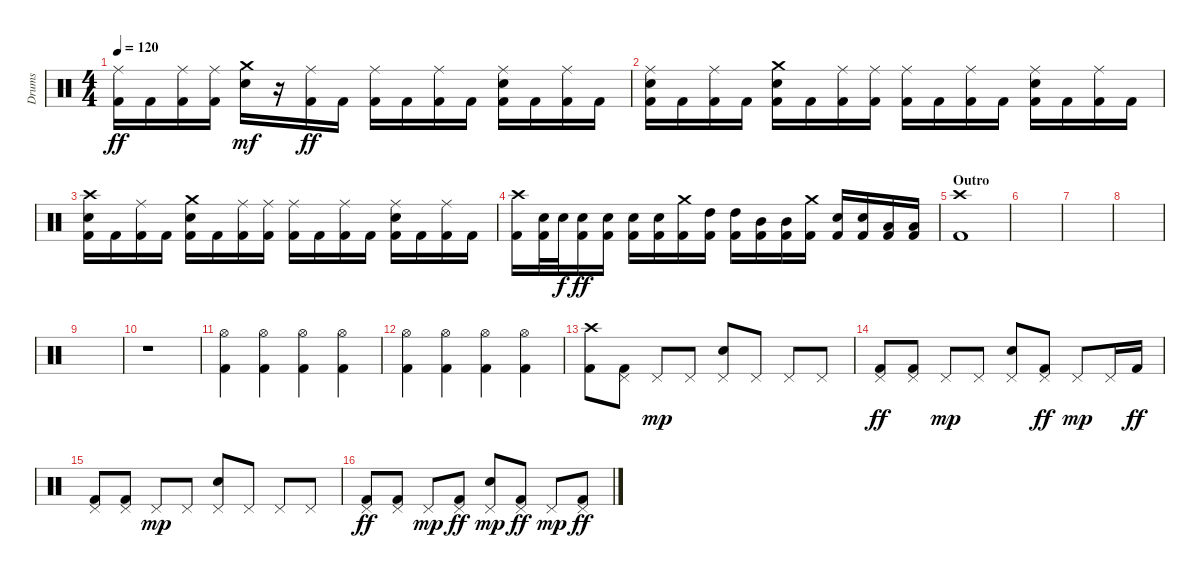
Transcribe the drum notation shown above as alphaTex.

\track ("Drums" "Drums") {instrument percussion}
\staff {score}
\articulation defaults
\ts (4 4)
\tempo 120
\clef neutral
\ks c
("Ride (middle)" "Kick (hit) 2").16{dy ff} "Kick (hit) 2".16 ("Ride (middle)" "Kick (hit) 2").16 ("Ride (middle)" "Kick (hit) 2").16 ("Crash medium (hit)" "Electric Snare (hit)").16{dy mf} r.16 ("Ride (middle)" "Kick (hit) 2").16{dy ff} "Kick (hit) 2".16 ("Ride (middle)" "Kick (hit) 2").16 "Kick (hit) 2".16 ("Ride (middle)" "Kick (hit) 2").16 "Kick (hit) 2".16 ("Ride (middle)" "Electric Snare (hit)" "Kick (hit) 2").16 "Kick (hit) 2".16 ("Ride (middle)" "Kick (hit) 2").16 "Kick (hit) 2".16 |
("Ride (middle)" "Electric Snare (hit)" "Kick (hit) 2").16 "Kick (hit) 2".16 ("Ride (middle)" "Kick (hit) 2").16 "Kick (hit) 2".16 ("Crash medium (hit)" "Electric Snare (hit)" "Kick (hit) 2").16 "Kick (hit) 2".16 ("Ride (middle)" "Kick (hit) 2").16 ("Ride (middle)" "Kick (hit) 2").16 ("Ride (middle)" "Kick (hit) 2").16 "Kick (hit) 2".16 ("Ride (middle)" "Kick (hit) 2").16 "Kick (hit) 2".16 ("Ride (middle)" "Electric Snare (hit)" "Kick (hit) 2").16 "Kick (hit) 2".16 ("Ride (middle)" "Kick (hit) 2").16 "Kick (hit) 2".16 |
("Crash high (hit)" "Electric Snare (hit)" "Kick (hit) 2").16 "Kick (hit) 2".16 ("Ride (middle)" "Kick (hit) 2").16 "Kick (hit) 2".16 ("Crash medium (hit)" "Electric Snare (hit)" "Kick (hit) 2").16 "Kick (hit) 2".16 ("Ride (middle)" "Kick (hit) 2").16 ("Ride (middle)" "Kick (hit) 2").16 ("Ride (middle)" "Kick (hit) 2").16 "Kick (hit) 2".16 ("Ride (middle)" "Kick (hit) 2").16 "Kick (hit) 2".16 ("Ride (middle)" "Electric Snare (hit)" "Kick (hit) 2").16 "Kick (hit) 2".16 ("Ride (middle)" "Kick (hit) 2").16 "Kick (hit) 2".16 |
("Crash high (hit)" "Kick (hit) 2").16 ("Electric Snare (hit)" "Kick (hit) 2").32 "Electric Snare (hit)".32{dy f} ("Electric Snare (hit)" "Kick (hit) 2").16{dy ff} ("Electric Snare (hit)" "Kick (hit) 2").16 ("Electric Snare (hit)" "Kick (hit) 2").16 ("Electric Snare (hit)" "Kick (hit) 2").16 ("Crash medium (hit)" "Kick (hit) 2").16 ("High Tom (hit)" "Kick (hit) 2").16 ("High Tom (hit)" "Kick (hit) 2").16 ("Mid Tom (hit)" "Kick (hit) 2").16 ("Mid Tom (hit)" "Kick (hit) 2").16 ("Crash medium (hit)" "Kick (hit) 2").16 ("Electric Snare (hit)" "Kick (hit) 2").16 ("Electric Snare (hit)" "Kick (hit) 2").16 ("Low Tom (hit)" "Kick (hit) 2").16 ("Low Tom (hit)" "Kick (hit) 2").16 |
\section ("" "Outro")
("Crash high (hit)" "Kick (hit) 2").1 |
|
|
|
|
r.1{volume 6} |
("Hi-Hat (open)" "Kick (hit) 2").4{volume 9} ("Hi-Hat (open)" "Kick (hit) 2").4 ("Hi-Hat (open)" "Kick (hit) 2").4 ("Hi-Hat (open)" "Kick (hit) 2").4 |
("Hi-Hat (open)" "Kick (hit) 2").4{volume 13} ("Hi-Hat (open)" "Kick (hit) 2").4 ("Hi-Hat (open)" "Kick (hit) 2").4 ("Hi-Hat (open)" "Kick (hit) 2").4 |
\section ("" "")
("Crash high (hit)" "Kick (hit) 2").8{volume 13} ("Pedal Hi-Hat (hit)" "Kick (hit) 2").8 "Pedal Hi-Hat (hit)".8{dy mp} "Pedal Hi-Hat (hit)".8 ("Pedal Hi-Hat (hit)" "Electric Snare (hit)").8 "Pedal Hi-Hat (hit)".8 "Pedal Hi-Hat (hit)".8 "Pedal Hi-Hat (hit)".8 |
("Pedal Hi-Hat (hit)" "Kick (hit) 2").8{dy ff} ("Pedal Hi-Hat (hit)" "Kick (hit) 2").8 "Pedal Hi-Hat (hit)".8{dy mp} "Pedal Hi-Hat (hit)".8 ("Pedal Hi-Hat (hit)" "Electric Snare (hit)").8 ("Pedal Hi-Hat (hit)" "Kick (hit) 2").8{dy ff} "Pedal Hi-Hat (hit)".8{dy mp} "Pedal Hi-Hat (hit)".16 "Kick (hit) 2".16{dy ff} |
("Pedal Hi-Hat (hit)" "Kick (hit) 2").8 ("Pedal Hi-Hat (hit)" "Kick (hit) 2").8 "Pedal Hi-Hat (hit)".8{dy mp} "Pedal Hi-Hat (hit)".8 ("Pedal Hi-Hat (hit)" "Electric Snare (hit)").8 "Pedal Hi-Hat (hit)".8 "Pedal Hi-Hat (hit)".8 "Pedal Hi-Hat (hit)".8 |
("Pedal Hi-Hat (hit)" "Kick (hit) 2").8{dy ff} ("Pedal Hi-Hat (hit)" "Kick (hit) 2").8 "Pedal Hi-Hat (hit)".8{dy mp} ("Pedal Hi-Hat (hit)" "Kick (hit) 2").8{dy ff} ("Pedal Hi-Hat (hit)" "Electric Snare (hit)").8{dy mp} ("Pedal Hi-Hat (hit)" "Kick (hit) 2").8{dy ff} "Pedal Hi-Hat (hit)".8{dy mp} ("Pedal Hi-Hat (hit)" "Kick (hit) 2").8{dy ff}
